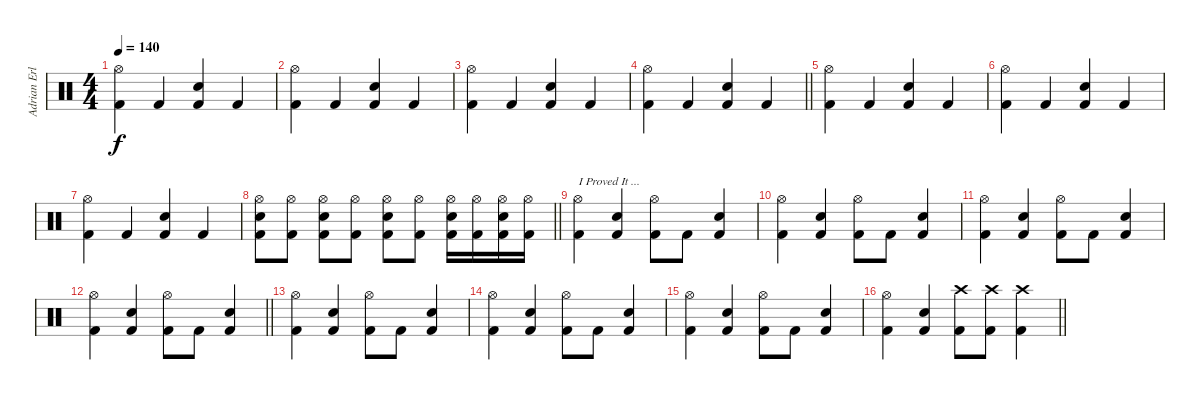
\track ("Adrian Erlandsson" "Adrian Erl") {instrument percussion}
\staff {score}
\articulation defaults
\ts (4 4)
\tempo 140
\clef neutral
\ks c
("Kick (hit) 2" "Hi-Hat (open)").4{dy f} "Kick (hit) 2".4 ("Kick (hit) 2" "Electric Snare (hit)").4 "Kick (hit) 2".4 |
("Kick (hit) 2" "Hi-Hat (open)").4 "Kick (hit) 2".4 ("Kick (hit) 2" "Electric Snare (hit)").4 "Kick (hit) 2".4 |
("Kick (hit) 2" "Hi-Hat (open)").4 "Kick (hit) 2".4 ("Kick (hit) 2" "Electric Snare (hit)").4 "Kick (hit) 2".4 |
\barLineRight lightlight
("Kick (hit) 2" "Hi-Hat (open)").4 "Kick (hit) 2".4 ("Kick (hit) 2" "Electric Snare (hit)").4 "Kick (hit) 2".4 |
("Kick (hit) 2" "Hi-Hat (open)").4 "Kick (hit) 2".4 ("Kick (hit) 2" "Electric Snare (hit)").4 "Kick (hit) 2".4 |
("Kick (hit) 2" "Hi-Hat (open)").4 "Kick (hit) 2".4 ("Kick (hit) 2" "Electric Snare (hit)").4 "Kick (hit) 2".4 |
("Kick (hit) 2" "Hi-Hat (open)").4 "Kick (hit) 2".4 ("Kick (hit) 2" "Electric Snare (hit)").4 "Kick (hit) 2".4 |
\barLineRight lightlight
("Kick (hit) 2" "Electric Snare (hit)" "Hi-Hat (open)").8 ("Kick (hit) 2" "Hi-Hat (open)").8 ("Kick (hit) 2" "Electric Snare (hit)" "Hi-Hat (open)").8 ("Kick (hit) 2" "Hi-Hat (open)").8 ("Kick (hit) 2" "Electric Snare (hit)" "Hi-Hat (open)").8 ("Kick (hit) 2" "Hi-Hat (open)").8 ("Kick (hit) 2" "Electric Snare (hit)" "Hi-Hat (open)").16 ("Kick (hit) 2" "Hi-Hat (open)").16 ("Kick (hit) 2" "Electric Snare (hit)" "Hi-Hat (open)").16 ("Kick (hit) 2" "Hi-Hat (open)").16 |
("Kick (hit) 2" "Hi-Hat (open)").4{txt "I Proved It ..."} ("Kick (hit) 2" "Electric Snare (hit)").4 ("Kick (hit) 2" "Hi-Hat (open)").8 "Kick (hit) 2".8 ("Kick (hit) 2" "Electric Snare (hit)").4 |
("Kick (hit) 2" "Hi-Hat (open)").4 ("Kick (hit) 2" "Electric Snare (hit)").4 ("Kick (hit) 2" "Hi-Hat (open)").8 "Kick (hit) 2".8 ("Kick (hit) 2" "Electric Snare (hit)").4 |
("Kick (hit) 2" "Hi-Hat (open)").4 ("Kick (hit) 2" "Electric Snare (hit)").4 ("Kick (hit) 2" "Hi-Hat (open)").8 "Kick (hit) 2".8 ("Kick (hit) 2" "Electric Snare (hit)").4 |
\barLineRight lightlight
("Kick (hit) 2" "Hi-Hat (open)").4 ("Kick (hit) 2" "Electric Snare (hit)").4 ("Kick (hit) 2" "Hi-Hat (open)").8 "Kick (hit) 2".8 ("Kick (hit) 2" "Electric Snare (hit)").4 |
("Kick (hit) 2" "Hi-Hat (open)").4 ("Kick (hit) 2" "Electric Snare (hit)").4 ("Kick (hit) 2" "Hi-Hat (open)").8 "Kick (hit) 2".8 ("Kick (hit) 2" "Electric Snare (hit)").4 |
("Kick (hit) 2" "Hi-Hat (open)").4 ("Kick (hit) 2" "Electric Snare (hit)").4 ("Kick (hit) 2" "Hi-Hat (open)").8 "Kick (hit) 2".8 ("Kick (hit) 2" "Electric Snare (hit)").4 |
("Kick (hit) 2" "Hi-Hat (open)").4 ("Kick (hit) 2" "Electric Snare (hit)").4 ("Kick (hit) 2" "Hi-Hat (open)").8 "Kick (hit) 2".8 ("Kick (hit) 2" "Electric Snare (hit)").4 |
\barLineRight lightlight
("Kick (hit) 2" "Hi-Hat (open)").4 ("Kick (hit) 2" "Electric Snare (hit)").4 ("Kick (hit) 2" "Crash high (hit)").8 ("Kick (hit) 2" "Crash high (hit)").8 ("Kick (hit) 2" "Crash high (hit)").4
